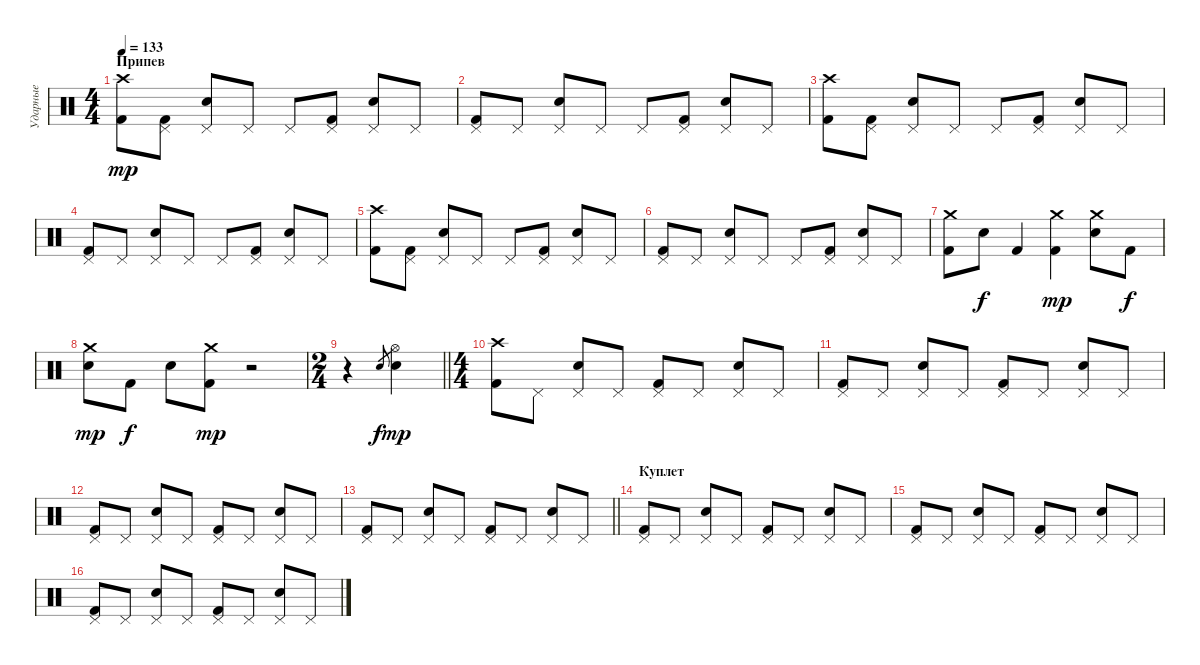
\track ("Ударные" "Ударные") {instrument percussion}
\staff {score}
\articulation defaults
\ts (4 4)
\section ("" "Припев")
\tempo 133
\clef neutral
\ks c
("Kick (hit) 2" "Crash high (hit)").8{dy mp} ("Kick (hit) 2" "Pedal Hi-Hat (hit)").8 ("Electric Snare (hit)" "Pedal Hi-Hat (hit)").8 "Pedal Hi-Hat (hit)".8 "Pedal Hi-Hat (hit)".8 ("Kick (hit) 2" "Pedal Hi-Hat (hit)").8 ("Electric Snare (hit)" "Pedal Hi-Hat (hit)").8 "Pedal Hi-Hat (hit)".8 |
("Kick (hit) 2" "Pedal Hi-Hat (hit)").8 "Pedal Hi-Hat (hit)".8 ("Electric Snare (hit)" "Pedal Hi-Hat (hit)").8 "Pedal Hi-Hat (hit)".8 "Pedal Hi-Hat (hit)".8 ("Kick (hit) 2" "Pedal Hi-Hat (hit)").8 ("Electric Snare (hit)" "Pedal Hi-Hat (hit)").8 "Pedal Hi-Hat (hit)".8 |
("Kick (hit) 2" "Crash high (hit)").8 ("Kick (hit) 2" "Pedal Hi-Hat (hit)").8 ("Electric Snare (hit)" "Pedal Hi-Hat (hit)").8 "Pedal Hi-Hat (hit)".8 "Pedal Hi-Hat (hit)".8 ("Kick (hit) 2" "Pedal Hi-Hat (hit)").8 ("Electric Snare (hit)" "Pedal Hi-Hat (hit)").8 "Pedal Hi-Hat (hit)".8 |
("Kick (hit) 2" "Pedal Hi-Hat (hit)").8 "Pedal Hi-Hat (hit)".8 ("Electric Snare (hit)" "Pedal Hi-Hat (hit)").8 "Pedal Hi-Hat (hit)".8 "Pedal Hi-Hat (hit)".8 ("Kick (hit) 2" "Pedal Hi-Hat (hit)").8 ("Electric Snare (hit)" "Pedal Hi-Hat (hit)").8 "Pedal Hi-Hat (hit)".8 |
("Kick (hit) 2" "Crash high (hit)").8 ("Kick (hit) 2" "Pedal Hi-Hat (hit)").8 ("Electric Snare (hit)" "Pedal Hi-Hat (hit)").8 "Pedal Hi-Hat (hit)".8 "Pedal Hi-Hat (hit)".8 ("Kick (hit) 2" "Pedal Hi-Hat (hit)").8 ("Electric Snare (hit)" "Pedal Hi-Hat (hit)").8 "Pedal Hi-Hat (hit)".8 |
("Kick (hit) 2" "Pedal Hi-Hat (hit)").8 "Pedal Hi-Hat (hit)".8 ("Electric Snare (hit)" "Pedal Hi-Hat (hit)").8 "Pedal Hi-Hat (hit)".8 "Pedal Hi-Hat (hit)".8 ("Kick (hit) 2" "Pedal Hi-Hat (hit)").8 ("Electric Snare (hit)" "Pedal Hi-Hat (hit)").8 "Pedal Hi-Hat (hit)".8 |
("Kick (hit) 2" "Crash medium (hit)").8 "Electric Snare (hit)".8{dy f} "Kick (hit) 2".4 ("Kick (hit) 2" "Crash medium (hit)").4{dy mp} ("Electric Snare (hit)" "Crash medium (hit)").8 "Kick (hit) 2".8{dy f} |
("Electric Snare (hit)" "Crash medium (hit)").8{dy mp} "Kick (hit) 2".8{dy f} "Electric Snare (hit)".8 ("Kick (hit) 2" "Crash medium (hit)").8{dy mp} r.2 |
\ts (2 4)
\barLineRight lightlight
r.4 "Electric Snare (hit)".8{gr dy f} ("Electric Snare (hit)" "Hi-Hat (open)").4{dy mp} |
\ts (4 4)
\section ("" "")
("Kick (hit) 2" "Crash high (hit)").8 "Pedal Hi-Hat (hit)".8 ("Electric Snare (hit)" "Pedal Hi-Hat (hit)").8 "Pedal Hi-Hat (hit)".8 ("Kick (hit) 2" "Pedal Hi-Hat (hit)").8 "Pedal Hi-Hat (hit)".8 ("Electric Snare (hit)" "Pedal Hi-Hat (hit)").8 "Pedal Hi-Hat (hit)".8 |
("Kick (hit) 2" "Pedal Hi-Hat (hit)").8 "Pedal Hi-Hat (hit)".8 ("Electric Snare (hit)" "Pedal Hi-Hat (hit)").8 "Pedal Hi-Hat (hit)".8 ("Kick (hit) 2" "Pedal Hi-Hat (hit)").8 "Pedal Hi-Hat (hit)".8 ("Electric Snare (hit)" "Pedal Hi-Hat (hit)").8 "Pedal Hi-Hat (hit)".8 |
("Kick (hit) 2" "Pedal Hi-Hat (hit)").8 "Pedal Hi-Hat (hit)".8 ("Electric Snare (hit)" "Pedal Hi-Hat (hit)").8 "Pedal Hi-Hat (hit)".8 ("Kick (hit) 2" "Pedal Hi-Hat (hit)").8 "Pedal Hi-Hat (hit)".8 ("Electric Snare (hit)" "Pedal Hi-Hat (hit)").8 "Pedal Hi-Hat (hit)".8 |
\barLineRight lightlight
("Kick (hit) 2" "Pedal Hi-Hat (hit)").8 "Pedal Hi-Hat (hit)".8 ("Electric Snare (hit)" "Pedal Hi-Hat (hit)").8 "Pedal Hi-Hat (hit)".8 ("Kick (hit) 2" "Pedal Hi-Hat (hit)").8 "Pedal Hi-Hat (hit)".8 ("Electric Snare (hit)" "Pedal Hi-Hat (hit)").8 "Pedal Hi-Hat (hit)".8 |
\section ("" "Куплет")
("Kick (hit) 2" "Pedal Hi-Hat (hit)").8 "Pedal Hi-Hat (hit)".8 ("Electric Snare (hit)" "Pedal Hi-Hat (hit)").8 "Pedal Hi-Hat (hit)".8 ("Kick (hit) 2" "Pedal Hi-Hat (hit)").8 "Pedal Hi-Hat (hit)".8 ("Electric Snare (hit)" "Pedal Hi-Hat (hit)").8 "Pedal Hi-Hat (hit)".8 |
("Kick (hit) 2" "Pedal Hi-Hat (hit)").8 "Pedal Hi-Hat (hit)".8 ("Electric Snare (hit)" "Pedal Hi-Hat (hit)").8 "Pedal Hi-Hat (hit)".8 ("Kick (hit) 2" "Pedal Hi-Hat (hit)").8 "Pedal Hi-Hat (hit)".8 ("Electric Snare (hit)" "Pedal Hi-Hat (hit)").8 "Pedal Hi-Hat (hit)".8 |
("Kick (hit) 2" "Pedal Hi-Hat (hit)").8 "Pedal Hi-Hat (hit)".8 ("Electric Snare (hit)" "Pedal Hi-Hat (hit)").8 "Pedal Hi-Hat (hit)".8 ("Kick (hit) 2" "Pedal Hi-Hat (hit)").8 "Pedal Hi-Hat (hit)".8 ("Electric Snare (hit)" "Pedal Hi-Hat (hit)").8 "Pedal Hi-Hat (hit)".8
